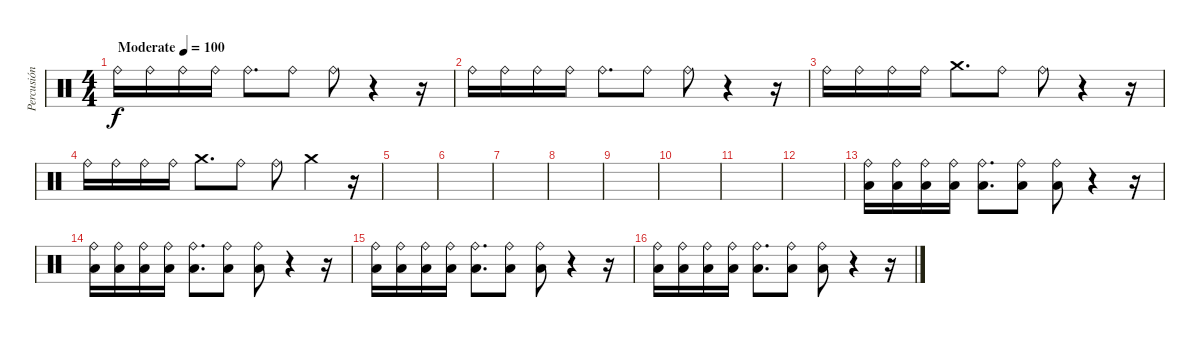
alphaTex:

\track ("Percusión" "Percusión") {instrument percussion}
\staff {score}
\articulation defaults
\ts (4 4)
\tempo (100 "Moderate")
\clef neutral
\ks c "Ride (bell)".16{dy f} "Ride (bell)".16 "Ride (bell)".16 "Ride (bell)".16 "Ride (bell)".8{d} "Ride (bell)".8 "Ride (bell)".8
r.4 r.16 |
"Ride (bell)".16 "Ride (bell)".16 "Ride (bell)".16 "Ride (bell)".16 "Ride (bell)".8{d} "Ride (bell)".8 "Ride (bell)".8 r.4 r.16 |
"Ride (bell)".16 "Ride (bell)".16 "Ride (bell)".16 "Ride (bell)".16 "Crash medium (hit)".8{d} "Ride (bell)".8 "Ride (bell)".8 r.4 r.16 |
"Ride (bell)".16 "Ride (bell)".16 "Ride (bell)".16 "Ride (bell)".16 "Crash medium (hit)".8{d} "Ride (bell)".8 "Ride (bell)".8 "Crash medium (hit)".4 r.16 |
|
|
|
|
|
|
|
|
("Ride (bell)" "Low Floor Tom (hit)").16 ("Ride (bell)" "Low Floor Tom (hit)").16 ("Ride (bell)" "Low Floor Tom (hit)").16 ("Ride (bell)" "Low Floor Tom (hit)").16 ("Ride (bell)" "Low Floor Tom (hit)").8{d} ("Ride (bell)" "Low Floor Tom (hit)").8 ("Ride (bell)" "Low Floor Tom (hit)").8 r.4 r.16 |
("Ride (bell)" "Low Floor Tom (hit)").16 ("Ride (bell)" "Low Floor Tom (hit)").16 ("Ride (bell)" "Low Floor Tom (hit)").16 ("Ride (bell)" "Low Floor Tom (hit)").16 ("Ride (bell)" "Low Floor Tom (hit)").8{d} ("Ride (bell)" "Low Floor Tom (hit)").8 ("Ride (bell)" "Low Floor Tom (hit)").8 r.4 r.16 |
("Ride (bell)" "Low Floor Tom (hit)").16 ("Ride (bell)" "Low Floor Tom (hit)").16 ("Ride (bell)" "Low Floor Tom (hit)").16 ("Ride (bell)" "Low Floor Tom (hit)").16 ("Ride (bell)" "Low Floor Tom (hit)").8{d} ("Ride (bell)" "Low Floor Tom (hit)").8 ("Ride (bell)" "Low Floor Tom (hit)").8 r.4 r.16 |
("Ride (bell)" "Low Floor Tom (hit)").16 ("Ride (bell)" "Low Floor Tom (hit)").16 ("Ride (bell)" "Low Floor Tom (hit)").16 ("Ride (bell)" "Low Floor Tom (hit)").16 ("Ride (bell)" "Low Floor Tom (hit)").8{d} ("Ride (bell)" "Low Floor Tom (hit)").8 ("Ride (bell)" "Low Floor Tom (hit)").8 r.4 r.16
